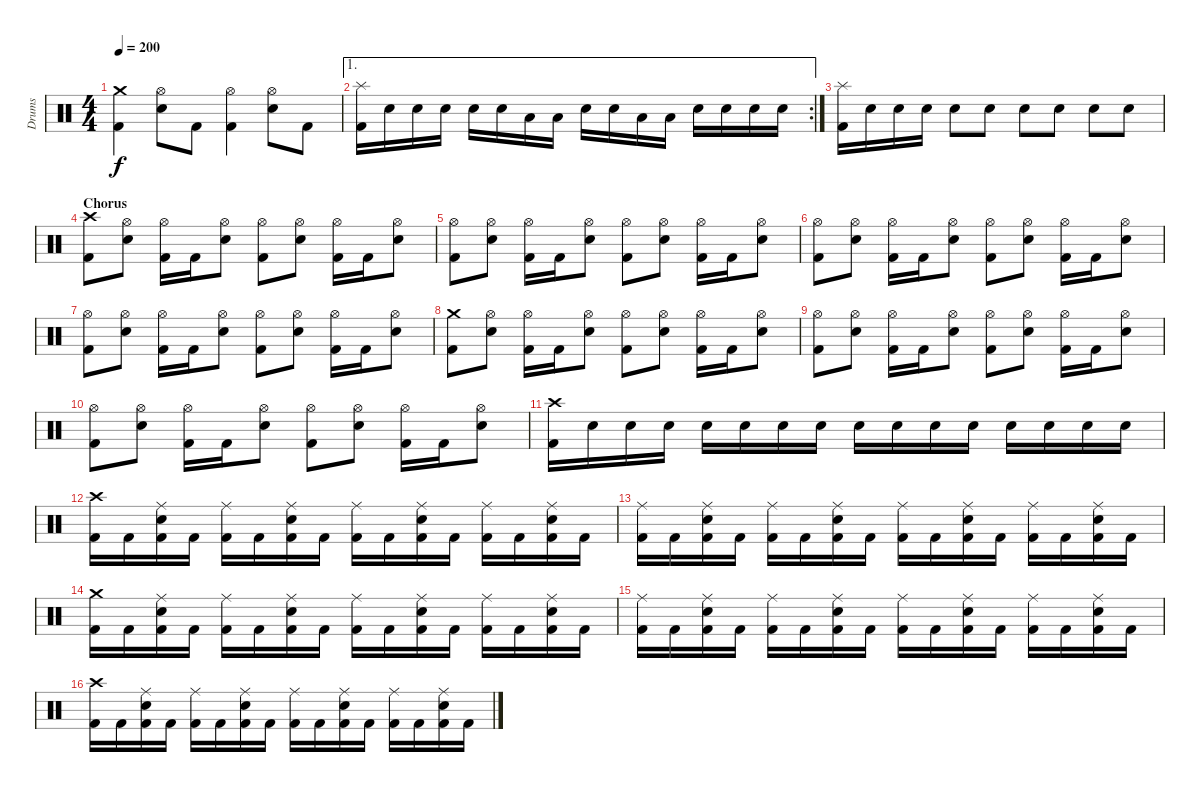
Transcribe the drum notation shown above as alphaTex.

\track ("Drums" "Drums") {instrument percussion}
\staff {score}
\articulation defaults
\ts (4 4)
\tempo 200
\clef neutral
\ks c
("Crash medium (hit)" "Kick (hit) 2").4{dy f} ("Hi-Hat (open)" "Electric Snare (hit)").8 "Kick (hit) 2".8 ("Hi-Hat (open)" "Kick (hit) 2").4 ("Hi-Hat (open)" "Electric Snare (hit)").8 "Kick (hit) 2".8 |
\ae 1
\rc 2
("Splash (hit)" "Kick (hit) 2").16 "Electric Snare (hit)".16 "Electric Snare (hit)".16 "Electric Snare (hit)".16 "Electric Snare (hit)".16 "Electric Snare (hit)".16 "Low Tom (hit)".16 "Low Tom (hit)".16 "Electric Snare (hit)".16 "Electric Snare (hit)".16 "Low Tom (hit)".16 "Low Tom (hit)".16 "Electric Snare (hit)".16 "Electric Snare (hit)".16 "Electric Snare (hit)".16 "Electric Snare (hit)".16 |
("Splash (hit)" "Kick (hit) 2").16 "Electric Snare (hit)".16 "Electric Snare (hit)".16 "Electric Snare (hit)".16 "Electric Snare (hit)".8 "Electric Snare (hit)".8 "Electric Snare (hit)".8 "Electric Snare (hit)".8 "Electric Snare (hit)".8 "Electric Snare (hit)".8 |
\section ("" "Chorus")
("Crash high (hit)" "Kick (hit) 2").8 ("Hi-Hat (open)" "Electric Snare (hit)").8 ("Hi-Hat (open)" "Kick (hit) 2").16 "Kick (hit) 2".16 ("Hi-Hat (open)" "Electric Snare (hit)").8 ("Hi-Hat (open)" "Kick (hit) 2").8 ("Hi-Hat (open)" "Electric Snare (hit)").8 ("Hi-Hat (open)" "Kick (hit) 2").16 "Kick (hit) 2".16 ("Hi-Hat (open)" "Electric Snare (hit)").8 |
("Hi-Hat (open)" "Kick (hit) 2").8 ("Hi-Hat (open)" "Electric Snare (hit)").8 ("Hi-Hat (open)" "Kick (hit) 2").16 "Kick (hit) 2".16 ("Hi-Hat (open)" "Electric Snare (hit)").8 ("Hi-Hat (open)" "Kick (hit) 2").8 ("Hi-Hat (open)" "Electric Snare (hit)").8 ("Hi-Hat (open)" "Kick (hit) 2").16 "Kick (hit) 2".16 ("Hi-Hat (open)" "Electric Snare (hit)").8 |
("Hi-Hat (open)" "Kick (hit) 2").8 ("Hi-Hat (open)" "Electric Snare (hit)").8 ("Hi-Hat (open)" "Kick (hit) 2").16 "Kick (hit) 2".16 ("Hi-Hat (open)" "Electric Snare (hit)").8 ("Hi-Hat (open)" "Kick (hit) 2").8 ("Hi-Hat (open)" "Electric Snare (hit)").8 ("Hi-Hat (open)" "Kick (hit) 2").16 "Kick (hit) 2".16 ("Hi-Hat (open)" "Electric Snare (hit)").8 |
("Hi-Hat (open)" "Kick (hit) 2").8 ("Hi-Hat (open)" "Electric Snare (hit)").8 ("Hi-Hat (open)" "Kick (hit) 2").16 "Kick (hit) 2".16 ("Hi-Hat (open)" "Electric Snare (hit)").8 ("Hi-Hat (open)" "Kick (hit) 2").8 ("Hi-Hat (open)" "Electric Snare (hit)").8 ("Hi-Hat (open)" "Kick (hit) 2").16 "Kick (hit) 2".16 ("Hi-Hat (open)" "Electric Snare (hit)").8 |
("Crash medium (hit)" "Kick (hit) 2").8 ("Hi-Hat (open)" "Electric Snare (hit)").8 ("Hi-Hat (open)" "Kick (hit) 2").16 "Kick (hit) 2".16 ("Hi-Hat (open)" "Electric Snare (hit)").8 ("Hi-Hat (open)" "Kick (hit) 2").8 ("Hi-Hat (open)" "Electric Snare (hit)").8 ("Hi-Hat (open)" "Kick (hit) 2").16 "Kick (hit) 2".16 ("Hi-Hat (open)" "Electric Snare (hit)").8 |
("Hi-Hat (open)" "Kick (hit) 2").8 ("Hi-Hat (open)" "Electric Snare (hit)").8 ("Hi-Hat (open)" "Kick (hit) 2").16 "Kick (hit) 2".16 ("Hi-Hat (open)" "Electric Snare (hit)").8 ("Hi-Hat (open)" "Kick (hit) 2").8 ("Hi-Hat (open)" "Electric Snare (hit)").8 ("Hi-Hat (open)" "Kick (hit) 2").16 "Kick (hit) 2".16 ("Hi-Hat (open)" "Electric Snare (hit)").8 |
("Hi-Hat (open)" "Kick (hit) 2").8 ("Hi-Hat (open)" "Electric Snare (hit)").8 ("Hi-Hat (open)" "Kick (hit) 2").16 "Kick (hit) 2".16 ("Hi-Hat (open)" "Electric Snare (hit)").8 ("Hi-Hat (open)" "Kick (hit) 2").8 ("Hi-Hat (open)" "Electric Snare (hit)").8 ("Hi-Hat (open)" "Kick (hit) 2").16 "Kick (hit) 2".16 ("Hi-Hat (open)" "Electric Snare (hit)").8 |
("Crash high (hit)" "Kick (hit) 2").16 "Electric Snare (hit)".16 "Electric Snare (hit)".16 "Electric Snare (hit)".16 "Electric Snare (hit)".16 "Electric Snare (hit)".16 "Electric Snare (hit)".16 "Electric Snare (hit)".16 "Electric Snare (hit)".16 "Electric Snare (hit)".16 "Electric Snare (hit)".16 "Electric Snare (hit)".16 "Electric Snare (hit)".16 "Electric Snare (hit)".16 "Electric Snare (hit)".16 "Electric Snare (hit)".16 |
("Crash high (hit)" "Kick (hit) 2").16 "Kick (hit) 2".16 ("Ride (middle)" "Electric Snare (hit)" "Kick (hit) 2").16 "Kick (hit) 2".16 ("Ride (middle)" "Kick (hit) 2").16 "Kick (hit) 2".16 ("Ride (middle)" "Electric Snare (hit)" "Kick (hit) 2").16 "Kick (hit) 2".16 ("Ride (middle)" "Kick (hit) 2").16 "Kick (hit) 2".16 ("Ride (middle)" "Electric Snare (hit)" "Kick (hit) 2").16 "Kick (hit) 2".16 ("Ride (middle)" "Kick (hit) 2").16 "Kick (hit) 2".16 ("Ride (middle)" "Electric Snare (hit)" "Kick (hit) 2").16 "Kick (hit) 2".16 |
("Ride (middle)" "Kick (hit) 2").16 "Kick (hit) 2".16 ("Ride (middle)" "Electric Snare (hit)" "Kick (hit) 2").16 "Kick (hit) 2".16 ("Ride (middle)" "Kick (hit) 2").16 "Kick (hit) 2".16 ("Ride (middle)" "Electric Snare (hit)" "Kick (hit) 2").16 "Kick (hit) 2".16 ("Ride (middle)" "Kick (hit) 2").16 "Kick (hit) 2".16 ("Ride (middle)" "Electric Snare (hit)" "Kick (hit) 2").16 "Kick (hit) 2".16 ("Ride (middle)" "Kick (hit) 2").16 "Kick (hit) 2".16 ("Ride (middle)" "Electric Snare (hit)" "Kick (hit) 2").16 "Kick (hit) 2".16 |
("Crash medium (hit)" "Kick (hit) 2").16 "Kick (hit) 2".16 ("Ride (middle)" "Electric Snare (hit)" "Kick (hit) 2").16 "Kick (hit) 2".16 ("Ride (middle)" "Kick (hit) 2").16 "Kick (hit) 2".16 ("Ride (middle)" "Electric Snare (hit)" "Kick (hit) 2").16 "Kick (hit) 2".16 ("Ride (middle)" "Kick (hit) 2").16 "Kick (hit) 2".16 ("Ride (middle)" "Electric Snare (hit)" "Kick (hit) 2").16 "Kick (hit) 2".16 ("Ride (middle)" "Kick (hit) 2").16 "Kick (hit) 2".16 ("Ride (middle)" "Electric Snare (hit)" "Kick (hit) 2").16 "Kick (hit) 2".16 |
("Ride (middle)" "Kick (hit) 2").16 "Kick (hit) 2".16 ("Ride (middle)" "Electric Snare (hit)" "Kick (hit) 2").16 "Kick (hit) 2".16 ("Ride (middle)" "Kick (hit) 2").16 "Kick (hit) 2".16 ("Ride (middle)" "Electric Snare (hit)" "Kick (hit) 2").16 "Kick (hit) 2".16 ("Ride (middle)" "Kick (hit) 2").16 "Kick (hit) 2".16 ("Ride (middle)" "Electric Snare (hit)" "Kick (hit) 2").16 "Kick (hit) 2".16 ("Ride (middle)" "Kick (hit) 2").16 "Kick (hit) 2".16 ("Ride (middle)" "Electric Snare (hit)" "Kick (hit) 2").16 "Kick (hit) 2".16 |
("Crash high (hit)" "Kick (hit) 2").16 "Kick (hit) 2".16 ("Ride (middle)" "Electric Snare (hit)" "Kick (hit) 2").16 "Kick (hit) 2".16 ("Ride (middle)" "Kick (hit) 2").16 "Kick (hit) 2".16 ("Ride (middle)" "Electric Snare (hit)" "Kick (hit) 2").16 "Kick (hit) 2".16 ("Ride (middle)" "Kick (hit) 2").16 "Kick (hit) 2".16 ("Ride (middle)" "Electric Snare (hit)" "Kick (hit) 2").16 "Kick (hit) 2".16 ("Ride (middle)" "Kick (hit) 2").16 "Kick (hit) 2".16 ("Ride (middle)" "Electric Snare (hit)" "Kick (hit) 2").16 "Kick (hit) 2".16
